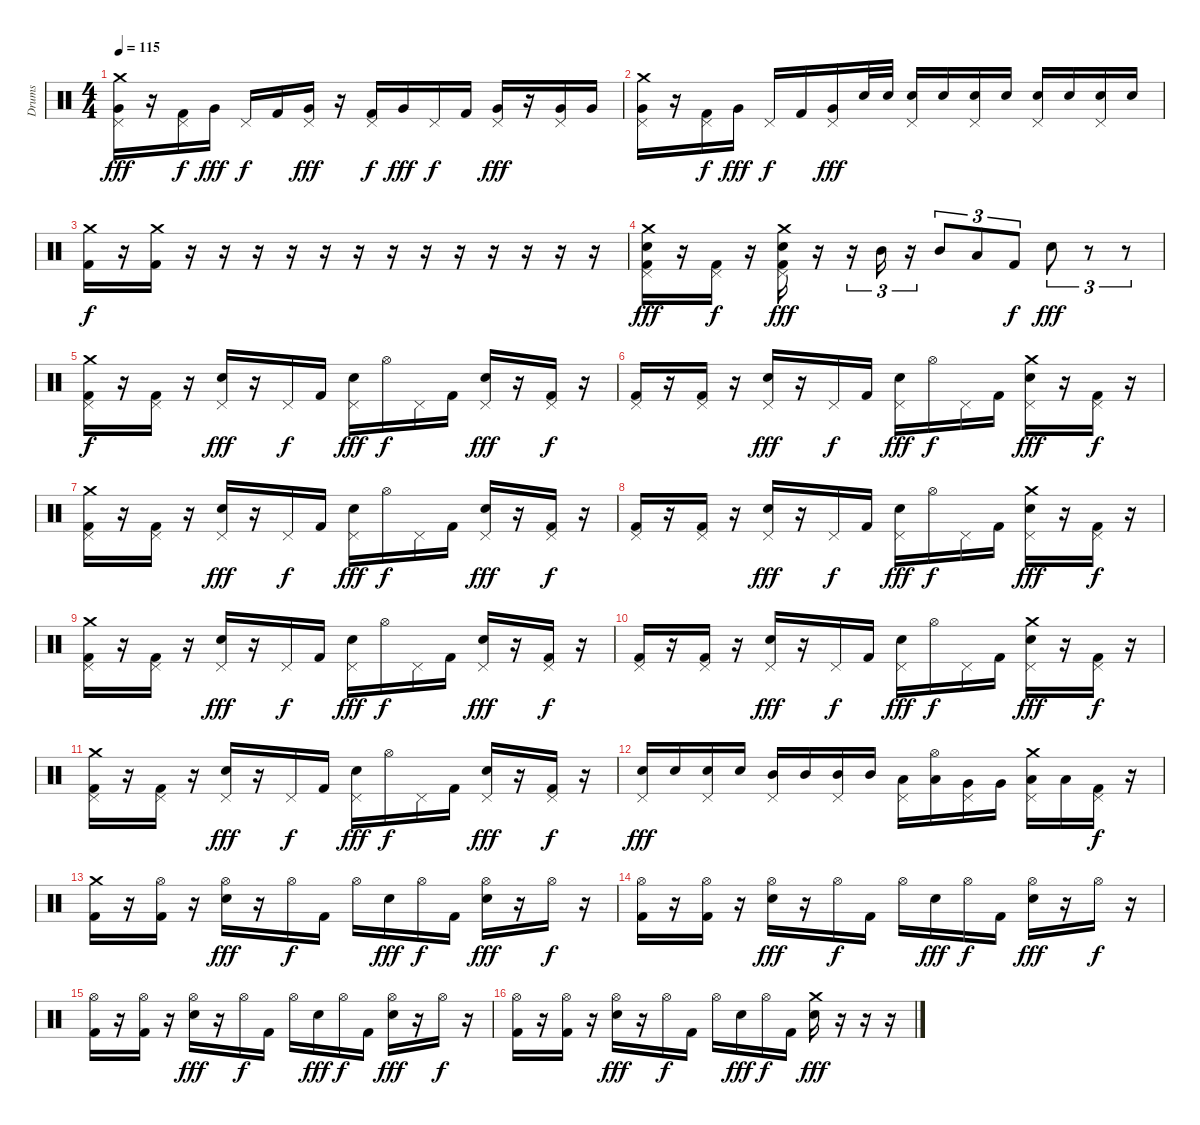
\track ("Drums" "Drums") {instrument percussion}
\staff {score}
\articulation defaults
\ts (4 4)
\tempo 115
\clef neutral
\ks c
("Crash medium (hit)" "Pedal Hi-Hat (hit)" "Very Low Tom (hit)").16{dy fff} r.16 ("Pedal Hi-Hat (hit)" "Kick (hit) 2").16{dy f} "Very Low Tom (hit)".16{dy fff} "Pedal Hi-Hat (hit)".16{dy f} "Kick (hit) 2".16 ("Pedal Hi-Hat (hit)" "Very Low Tom (hit)").16{dy fff} r.16 ("Pedal Hi-Hat (hit)" "Kick (hit) 2").16{dy f} "Very Low Tom (hit)".16{dy fff} "Pedal Hi-Hat (hit)".16{dy f} "Kick (hit) 2".16 ("Pedal Hi-Hat (hit)" "Very Low Tom (hit)").16{dy fff} r.16 ("Pedal Hi-Hat (hit)" "Very Low Tom (hit)").16 "Very Low Tom (hit)".16 |
("Crash medium (hit)" "Pedal Hi-Hat (hit)" "Very Low Tom (hit)").16 r.16 ("Pedal Hi-Hat (hit)" "Kick (hit) 2").16{dy f} "Very Low Tom (hit)".16{dy fff} "Pedal Hi-Hat (hit)".16{dy f} "Kick (hit) 2".16 ("Pedal Hi-Hat (hit)" "Very Low Tom (hit)").16{dy fff} "Snare (hit) 2".32 "Snare (hit) 2".32 ("Pedal Hi-Hat (hit)" "Snare (hit) 2").16 "Snare (hit) 2".16 ("Pedal Hi-Hat (hit)" "Snare (hit) 2").16 "Snare (hit) 2".16 ("Pedal Hi-Hat (hit)" "Snare (hit) 2").16 "Snare (hit) 2".16 ("Pedal Hi-Hat (hit)" "Snare (hit) 2").16 "Snare (hit) 2".16 |
("Crash medium (hit)" "Kick (hit) 2").16{dy f} r.16 ("Crash medium (hit)" "Kick (hit) 2").16 r.16 r.16 r.16 r.16 r.16 r.16 r.16 r.16 r.16 r.16 r.16 r.16 r.16 |
("Crash medium (hit)" "Pedal Hi-Hat (hit)" "Snare (hit) 2" "Kick (hit) 2").16{dy fff} r.16 ("Pedal Hi-Hat (hit)" "Kick (hit) 2").16{dy f} r.16 ("Crash medium (hit)" "Pedal Hi-Hat (hit)" "Snare (hit) 2" "Kick (hit) 2").16{dy fff} r.16 r.16{tu (3 2)} "Mid Tom (hit)".16{tu (3 2)} r.16{tu (3 2)} "Mid Tom (hit)".8{tu (3 2)} "Low Tom (hit)".8{tu (3 2)} "Kick (hit) 2".8{tu (3 2) dy f} "Snare (hit) 2".8{tu (3 2) dy fff} r.8{tu (3 2)} r.8{tu (3 2)} |
("Crash medium (hit)" "Pedal Hi-Hat (hit)" "Kick (hit) 2").16{dy f} r.16 ("Pedal Hi-Hat (hit)" "Kick (hit) 2").16 r.16 ("Pedal Hi-Hat (hit)" "Snare (hit) 2").16{dy fff} r.16 "Pedal Hi-Hat (hit)".16{dy f} "Kick (hit) 2".16 ("Pedal Hi-Hat (hit)" "Snare (hit) 2").16{dy fff} "Hi-Hat (open)".16{dy f} "Pedal Hi-Hat (hit)".16 "Kick (hit) 2".16 ("Pedal Hi-Hat (hit)" "Snare (hit) 2").16{dy fff} r.16 ("Pedal Hi-Hat (hit)" "Kick (hit) 2").16{dy f} r.16 |
("Pedal Hi-Hat (hit)" "Kick (hit) 2").16 r.16 ("Pedal Hi-Hat (hit)" "Kick (hit) 2").16 r.16 ("Pedal Hi-Hat (hit)" "Snare (hit) 2").16{dy fff} r.16 "Pedal Hi-Hat (hit)".16{dy f} "Kick (hit) 2".16 ("Pedal Hi-Hat (hit)" "Snare (hit) 2").16{dy fff} "Hi-Hat (open)".16{dy f} "Pedal Hi-Hat (hit)".16 "Kick (hit) 2".16 ("Crash medium (hit)" "Pedal Hi-Hat (hit)" "Snare (hit) 2").16{dy fff} r.16 ("Pedal Hi-Hat (hit)" "Kick (hit) 2").16{dy f} r.16 |
("Crash medium (hit)" "Pedal Hi-Hat (hit)" "Kick (hit) 2").16 r.16 ("Pedal Hi-Hat (hit)" "Kick (hit) 2").16 r.16 ("Pedal Hi-Hat (hit)" "Snare (hit) 2").16{dy fff} r.16 "Pedal Hi-Hat (hit)".16{dy f} "Kick (hit) 2".16 ("Pedal Hi-Hat (hit)" "Snare (hit) 2").16{dy fff} "Hi-Hat (open)".16{dy f} "Pedal Hi-Hat (hit)".16 "Kick (hit) 2".16 ("Pedal Hi-Hat (hit)" "Snare (hit) 2").16{dy fff} r.16 ("Pedal Hi-Hat (hit)" "Kick (hit) 2").16{dy f} r.16 |
("Pedal Hi-Hat (hit)" "Kick (hit) 2").16 r.16 ("Pedal Hi-Hat (hit)" "Kick (hit) 2").16 r.16 ("Pedal Hi-Hat (hit)" "Snare (hit) 2").16{dy fff} r.16 "Pedal Hi-Hat (hit)".16{dy f} "Kick (hit) 2".16 ("Pedal Hi-Hat (hit)" "Snare (hit) 2").16{dy fff} "Hi-Hat (open)".16{dy f} "Pedal Hi-Hat (hit)".16 "Kick (hit) 2".16 ("Crash medium (hit)" "Pedal Hi-Hat (hit)" "Snare (hit) 2").16{dy fff} r.16 ("Pedal Hi-Hat (hit)" "Kick (hit) 2").16{dy f} r.16 |
("Crash medium (hit)" "Pedal Hi-Hat (hit)" "Kick (hit) 2").16 r.16 ("Pedal Hi-Hat (hit)" "Kick (hit) 2").16 r.16 ("Pedal Hi-Hat (hit)" "Snare (hit) 2").16{dy fff} r.16 "Pedal Hi-Hat (hit)".16{dy f} "Kick (hit) 2".16 ("Pedal Hi-Hat (hit)" "Snare (hit) 2").16{dy fff} "Hi-Hat (open)".16{dy f} "Pedal Hi-Hat (hit)".16 "Kick (hit) 2".16 ("Pedal Hi-Hat (hit)" "Snare (hit) 2").16{dy fff} r.16 ("Pedal Hi-Hat (hit)" "Kick (hit) 2").16{dy f} r.16 |
("Pedal Hi-Hat (hit)" "Kick (hit) 2").16 r.16 ("Pedal Hi-Hat (hit)" "Kick (hit) 2").16 r.16 ("Pedal Hi-Hat (hit)" "Snare (hit) 2").16{dy fff} r.16 "Pedal Hi-Hat (hit)".16{dy f} "Kick (hit) 2".16 ("Pedal Hi-Hat (hit)" "Snare (hit) 2").16{dy fff} "Hi-Hat (open)".16{dy f} "Pedal Hi-Hat (hit)".16 "Kick (hit) 2".16 ("Crash medium (hit)" "Pedal Hi-Hat (hit)" "Snare (hit) 2").16{dy fff} r.16 ("Pedal Hi-Hat (hit)" "Kick (hit) 2").16{dy f} r.16 |
("Crash medium (hit)" "Pedal Hi-Hat (hit)" "Kick (hit) 2").16 r.16 ("Pedal Hi-Hat (hit)" "Kick (hit) 2").16 r.16 ("Pedal Hi-Hat (hit)" "Snare (hit) 2").16{dy fff} r.16 "Pedal Hi-Hat (hit)".16{dy f} "Kick (hit) 2".16 ("Pedal Hi-Hat (hit)" "Snare (hit) 2").16{dy fff} "Hi-Hat (open)".16{dy f} "Pedal Hi-Hat (hit)".16 "Kick (hit) 2".16 ("Pedal Hi-Hat (hit)" "Snare (hit) 2").16{dy fff} r.16 ("Pedal Hi-Hat (hit)" "Kick (hit) 2").16{dy f} r.16 |
("Pedal Hi-Hat (hit)" "Snare (hit) 2").16{dy fff} "Snare (hit) 2".16 ("Pedal Hi-Hat (hit)" "Snare (hit) 2").16 "Snare (hit) 2".16 ("Pedal Hi-Hat (hit)" "Mid Tom (hit)").16 "Mid Tom (hit)".16 ("Pedal Hi-Hat (hit)" "Mid Tom (hit)").16 "Mid Tom (hit)".16 ("Pedal Hi-Hat (hit)" "Low Tom (hit)").16 ("Hi-Hat (open)" "Low Tom (hit)").16 ("Pedal Hi-Hat (hit)" "Very Low Tom (hit)").16 "Very Low Tom (hit)".16 ("Crash medium (hit)" "Pedal Hi-Hat (hit)" "Low Floor Tom (hit)").16 "Low Floor Tom (hit)".16 ("Pedal Hi-Hat (hit)" "Kick (hit) 2").16{dy f} r.16 |
("Crash medium (hit)" "Kick (hit) 2").16 r.16 ("Hi-Hat (open)" "Kick (hit) 2").16 r.16 ("Hi-Hat (open)" "Snare (hit) 2").16{dy fff} r.16 "Hi-Hat (open)".16{dy f} "Kick (hit) 2".16 "Hi-Hat (open)".16 "Snare (hit) 2".16{dy fff} "Hi-Hat (open)".16{dy f} "Kick (hit) 2".16 ("Hi-Hat (open)" "Snare (hit) 2").16{dy fff} r.16 "Hi-Hat (open)".16{dy f} r.16 |
("Hi-Hat (open)" "Kick (hit) 2").16 r.16 ("Hi-Hat (open)" "Kick (hit) 2").16 r.16 ("Hi-Hat (open)" "Snare (hit) 2").16{dy fff} r.16 "Hi-Hat (open)".16{dy f} "Kick (hit) 2".16 "Hi-Hat (open)".16 "Snare (hit) 2".16{dy fff} "Hi-Hat (open)".16{dy f} "Kick (hit) 2".16 ("Hi-Hat (open)" "Snare (hit) 2").16{dy fff} r.16 "Hi-Hat (open)".16{dy f} r.16 |
("Hi-Hat (open)" "Kick (hit) 2").16 r.16 ("Hi-Hat (open)" "Kick (hit) 2").16 r.16 ("Hi-Hat (open)" "Snare (hit) 2").16{dy fff} r.16 "Hi-Hat (open)".16{dy f} "Kick (hit) 2".16 "Hi-Hat (open)".16 "Snare (hit) 2".16{dy fff} "Hi-Hat (open)".16{dy f} "Kick (hit) 2".16 ("Hi-Hat (open)" "Snare (hit) 2").16{dy fff} r.16 "Hi-Hat (open)".16{dy f} r.16 |
("Hi-Hat (open)" "Kick (hit) 2").16 r.16 ("Hi-Hat (open)" "Kick (hit) 2").16 r.16 ("Hi-Hat (open)" "Snare (hit) 2").16{dy fff} r.16 "Hi-Hat (open)".16{dy f} "Kick (hit) 2".16 "Hi-Hat (open)".16 "Snare (hit) 2".16{dy fff} "Hi-Hat (open)".16{dy f} "Kick (hit) 2".16 ("Crash medium (hit)" "Snare (hit) 2").16{dy fff} r.16 r.16 r.16
